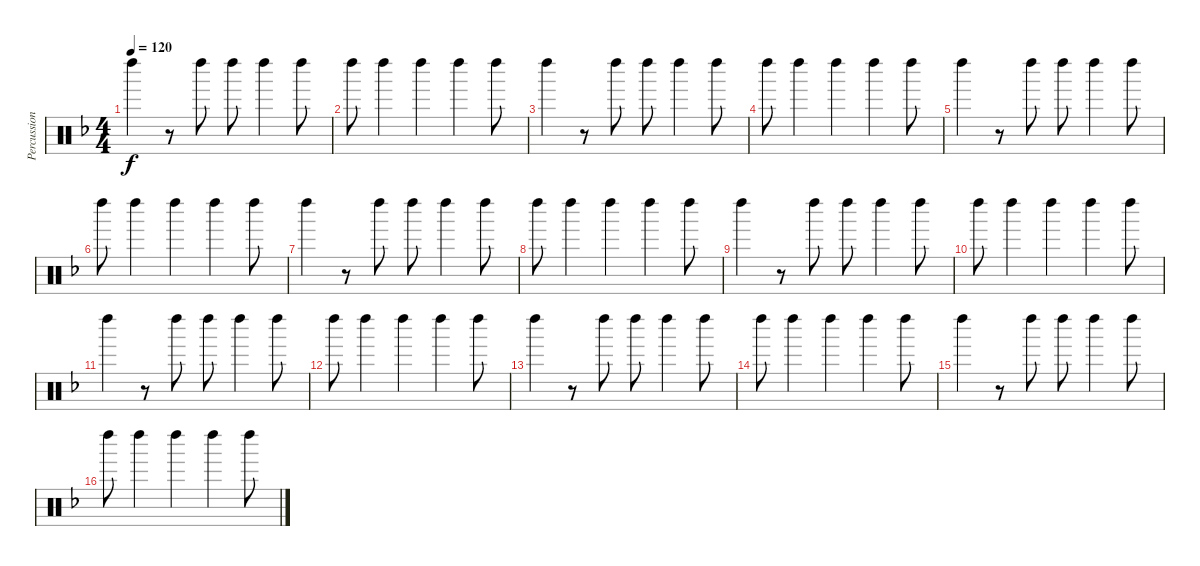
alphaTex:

\track ("Percussion" "Percussion") {instrument percussion}
\staff {score}
\articulation defaults
\ts (4 4)
\tempo 120
\clef neutral
\ks f "Left Maraca (hit)".4{dy f}
r.8 "Left Maraca (hit)".8 "Left Maraca (hit)".8 "Left Maraca (hit)".4 "Left Maraca (hit)".8 |
"Left Maraca (hit)".8 "Left Maraca (hit)".4 "Left Maraca (hit)".4 "Left Maraca (hit)".4 "Left Maraca (hit)".8 |
"Left Maraca (hit)".4 r.8 "Left Maraca (hit)".8 "Left Maraca (hit)".8 "Left Maraca (hit)".4 "Left Maraca (hit)".8 |
"Left Maraca (hit)".8 "Left Maraca (hit)".4 "Left Maraca (hit)".4 "Left Maraca (hit)".4 "Left Maraca (hit)".8 |
"Left Maraca (hit)".4 r.8 "Left Maraca (hit)".8 "Left Maraca (hit)".8 "Left Maraca (hit)".4 "Left Maraca (hit)".8 |
"Left Maraca (hit)".8 "Left Maraca (hit)".4 "Left Maraca (hit)".4 "Left Maraca (hit)".4 "Left Maraca (hit)".8 |
"Left Maraca (hit)".4 r.8 "Left Maraca (hit)".8 "Left Maraca (hit)".8 "Left Maraca (hit)".4 "Left Maraca (hit)".8 |
"Left Maraca (hit)".8 "Left Maraca (hit)".4 "Left Maraca (hit)".4 "Left Maraca (hit)".4 "Left Maraca (hit)".8 |
"Left Maraca (hit)".4 r.8 "Left Maraca (hit)".8 "Left Maraca (hit)".8 "Left Maraca (hit)".4 "Left Maraca (hit)".8 |
"Left Maraca (hit)".8 "Left Maraca (hit)".4 "Left Maraca (hit)".4 "Left Maraca (hit)".4 "Left Maraca (hit)".8 |
"Left Maraca (hit)".4 r.8 "Left Maraca (hit)".8 "Left Maraca (hit)".8 "Left Maraca (hit)".4 "Left Maraca (hit)".8 |
"Left Maraca (hit)".8 "Left Maraca (hit)".4 "Left Maraca (hit)".4 "Left Maraca (hit)".4 "Left Maraca (hit)".8 |
"Left Maraca (hit)".4 r.8 "Left Maraca (hit)".8 "Left Maraca (hit)".8 "Left Maraca (hit)".4 "Left Maraca (hit)".8 |
"Left Maraca (hit)".8 "Left Maraca (hit)".4 "Left Maraca (hit)".4 "Left Maraca (hit)".4 "Left Maraca (hit)".8 |
"Left Maraca (hit)".4 r.8 "Left Maraca (hit)".8 "Left Maraca (hit)".8 "Left Maraca (hit)".4 "Left Maraca (hit)".8 |
"Left Maraca (hit)".8 "Left Maraca (hit)".4 "Left Maraca (hit)".4 "Left Maraca (hit)".4 "Left Maraca (hit)".8
